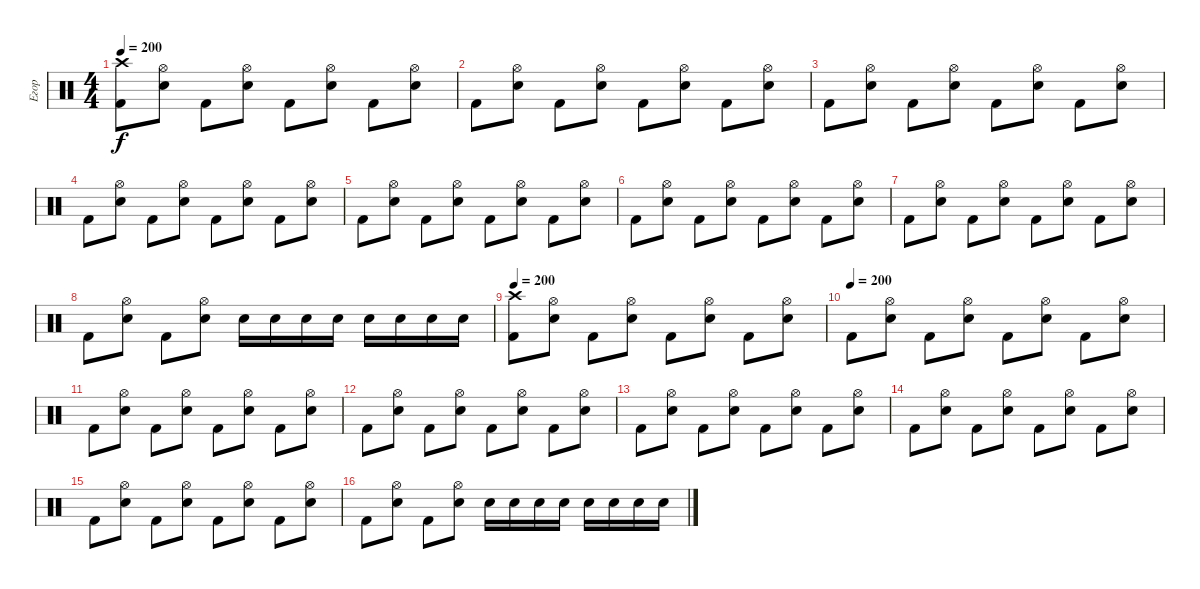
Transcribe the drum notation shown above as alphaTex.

\track ("Егор" "Егор") {instrument percussion}
\staff {score}
\articulation defaults
\ts (4 4)
\tempo 200
\clef neutral
\ks c
("Crash high (hit)" "Kick (hit) 2").8{dy f} ("Hi-Hat (open)" "Snare (hit) 2").8 "Kick (hit) 2".8 ("Hi-Hat (open)" "Snare (hit) 2").8 "Kick (hit) 2".8 ("Hi-Hat (open)" "Snare (hit) 2").8 "Kick (hit) 2".8 ("Hi-Hat (open)" "Snare (hit) 2").8 |
"Kick (hit) 2".8 ("Hi-Hat (open)" "Snare (hit) 2").8 "Kick (hit) 2".8 ("Hi-Hat (open)" "Snare (hit) 2").8 "Kick (hit) 2".8 ("Hi-Hat (open)" "Snare (hit) 2").8 "Kick (hit) 2".8 ("Hi-Hat (open)" "Snare (hit) 2").8 |
"Kick (hit) 2".8 ("Hi-Hat (open)" "Snare (hit) 2").8 "Kick (hit) 2".8 ("Hi-Hat (open)" "Snare (hit) 2").8 "Kick (hit) 2".8 ("Hi-Hat (open)" "Snare (hit) 2").8 "Kick (hit) 2".8 ("Hi-Hat (open)" "Snare (hit) 2").8 |
"Kick (hit) 2".8 ("Hi-Hat (open)" "Snare (hit) 2").8 "Kick (hit) 2".8 ("Hi-Hat (open)" "Snare (hit) 2").8 "Kick (hit) 2".8 ("Hi-Hat (open)" "Snare (hit) 2").8 "Kick (hit) 2".8 ("Hi-Hat (open)" "Snare (hit) 2").8 |
"Kick (hit) 2".8 ("Hi-Hat (open)" "Snare (hit) 2").8 "Kick (hit) 2".8 ("Hi-Hat (open)" "Snare (hit) 2").8 "Kick (hit) 2".8 ("Hi-Hat (open)" "Snare (hit) 2").8 "Kick (hit) 2".8 ("Hi-Hat (open)" "Snare (hit) 2").8 |
"Kick (hit) 2".8 ("Hi-Hat (open)" "Snare (hit) 2").8 "Kick (hit) 2".8 ("Hi-Hat (open)" "Snare (hit) 2").8 "Kick (hit) 2".8 ("Hi-Hat (open)" "Snare (hit) 2").8 "Kick (hit) 2".8 ("Hi-Hat (open)" "Snare (hit) 2").8 |
"Kick (hit) 2".8 ("Hi-Hat (open)" "Snare (hit) 2").8 "Kick (hit) 2".8 ("Hi-Hat (open)" "Snare (hit) 2").8 "Kick (hit) 2".8 ("Hi-Hat (open)" "Snare (hit) 2").8 "Kick (hit) 2".8 ("Hi-Hat (open)" "Snare (hit) 2").8 |
"Kick (hit) 2".8 ("Hi-Hat (open)" "Snare (hit) 2").8 "Kick (hit) 2".8 ("Hi-Hat (open)" "Snare (hit) 2").8 "Snare (hit) 2".16 "Snare (hit) 2".16 "Snare (hit) 2".16 "Snare (hit) 2".16 "Snare (hit) 2".16 "Snare (hit) 2".16 "Snare (hit) 2".16 "Snare (hit) 2".16 |
\tempo 200
("Crash high (hit)" "Kick (hit) 2").8 ("Hi-Hat (open)" "Snare (hit) 2").8 "Kick (hit) 2".8 ("Hi-Hat (open)" "Snare (hit) 2").8 "Kick (hit) 2".8 ("Hi-Hat (open)" "Snare (hit) 2").8 "Kick (hit) 2".8 ("Hi-Hat (open)" "Snare (hit) 2").8 |
\tempo (200)
"Kick (hit) 2".8 ("Hi-Hat (open)" "Snare (hit) 2").8 "Kick (hit) 2".8 ("Hi-Hat (open)" "Snare (hit) 2").8 "Kick (hit) 2".8 ("Hi-Hat (open)" "Snare (hit) 2").8 "Kick (hit) 2".8 ("Hi-Hat (open)" "Snare (hit) 2").8 |
"Kick (hit) 2".8 ("Hi-Hat (open)" "Snare (hit) 2").8 "Kick (hit) 2".8 ("Hi-Hat (open)" "Snare (hit) 2").8 "Kick (hit) 2".8 ("Hi-Hat (open)" "Snare (hit) 2").8 "Kick (hit) 2".8 ("Hi-Hat (open)" "Snare (hit) 2").8 |
"Kick (hit) 2".8 ("Hi-Hat (open)" "Snare (hit) 2").8 "Kick (hit) 2".8 ("Hi-Hat (open)" "Snare (hit) 2").8 "Kick (hit) 2".8 ("Hi-Hat (open)" "Snare (hit) 2").8 "Kick (hit) 2".8 ("Hi-Hat (open)" "Snare (hit) 2").8 |
"Kick (hit) 2".8 ("Hi-Hat (open)" "Snare (hit) 2").8 "Kick (hit) 2".8 ("Hi-Hat (open)" "Snare (hit) 2").8 "Kick (hit) 2".8 ("Hi-Hat (open)" "Snare (hit) 2").8 "Kick (hit) 2".8 ("Hi-Hat (open)" "Snare (hit) 2").8 |
"Kick (hit) 2".8 ("Hi-Hat (open)" "Snare (hit) 2").8 "Kick (hit) 2".8 ("Hi-Hat (open)" "Snare (hit) 2").8 "Kick (hit) 2".8 ("Hi-Hat (open)" "Snare (hit) 2").8 "Kick (hit) 2".8 ("Hi-Hat (open)" "Snare (hit) 2").8 |
"Kick (hit) 2".8 ("Hi-Hat (open)" "Snare (hit) 2").8 "Kick (hit) 2".8 ("Hi-Hat (open)" "Snare (hit) 2").8 "Kick (hit) 2".8 ("Hi-Hat (open)" "Snare (hit) 2").8 "Kick (hit) 2".8 ("Hi-Hat (open)" "Snare (hit) 2").8 |
"Kick (hit) 2".8 ("Hi-Hat (open)" "Snare (hit) 2").8 "Kick (hit) 2".8 ("Hi-Hat (open)" "Snare (hit) 2").8 "Snare (hit) 2".16 "Snare (hit) 2".16 "Snare (hit) 2".16 "Snare (hit) 2".16 "Snare (hit) 2".16 "Snare (hit) 2".16 "Snare (hit) 2".16 "Snare (hit) 2".16
